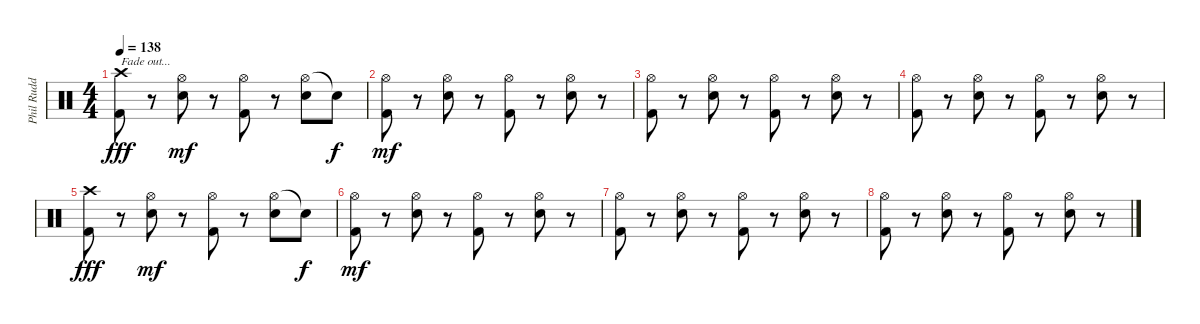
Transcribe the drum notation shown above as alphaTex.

\track ("Phil Rudd" "Phil Rudd") {instrument percussion}
\staff {score}
\articulation defaults
\ts (4 4)
\tempo 138
\clef neutral
\ks c
("Crash high (hit)" "Kick (hit) 2").8{txt "Fade out..." dy fff volume 6} r.8 ("Hi-Hat (open)" "Snare (hit) 2").8{dy mf} r.8 ("Hi-Hat (open)" "Kick (hit) 2").8 r.8 ("Hi-Hat (open)" "Snare (hit) 2").8 "Snare (hit)"{t}.8{dy f} |
("Hi-Hat (open)" "Kick (hit) 2").8{dy mf} r.8 ("Hi-Hat (open)" "Snare (hit) 2").8 r.8 ("Hi-Hat (open)" "Kick (hit) 2").8 r.8 ("Hi-Hat (open)" "Snare (hit) 2").8 r.8 |
("Hi-Hat (open)" "Kick (hit) 2").8 r.8 ("Hi-Hat (open)" "Snare (hit) 2").8 r.8 ("Hi-Hat (open)" "Kick (hit) 2").8 r.8 ("Hi-Hat (open)" "Snare (hit) 2").8 r.8 |
("Hi-Hat (open)" "Kick (hit) 2").8 r.8 ("Hi-Hat (open)" "Snare (hit) 2").8 r.8 ("Hi-Hat (open)" "Kick (hit) 2").8 r.8 ("Hi-Hat (open)" "Snare (hit) 2").8 r.8 |
("Crash high (hit)" "Kick (hit) 2").8{dy fff volume 0} r.8 ("Hi-Hat (open)" "Snare (hit) 2").8{dy mf} r.8 ("Hi-Hat (open)" "Kick (hit) 2").8 r.8 ("Hi-Hat (open)" "Snare (hit) 2").8 "Snare (hit)"{t}.8{dy f} |
("Hi-Hat (open)" "Kick (hit) 2").8{dy mf} r.8 ("Hi-Hat (open)" "Snare (hit) 2").8 r.8 ("Hi-Hat (open)" "Kick (hit) 2").8 r.8 ("Hi-Hat (open)" "Snare (hit) 2").8 r.8 |
("Hi-Hat (open)" "Kick (hit) 2").8 r.8 ("Hi-Hat (open)" "Snare (hit) 2").8 r.8 ("Hi-Hat (open)" "Kick (hit) 2").8 r.8 ("Hi-Hat (open)" "Snare (hit) 2").8 r.8 |
("Hi-Hat (open)" "Kick (hit) 2").8 r.8 ("Hi-Hat (open)" "Snare (hit) 2").8 r.8 ("Hi-Hat (open)" "Kick (hit) 2").8 r.8 ("Hi-Hat (open)" "Snare (hit) 2").8 r.8
